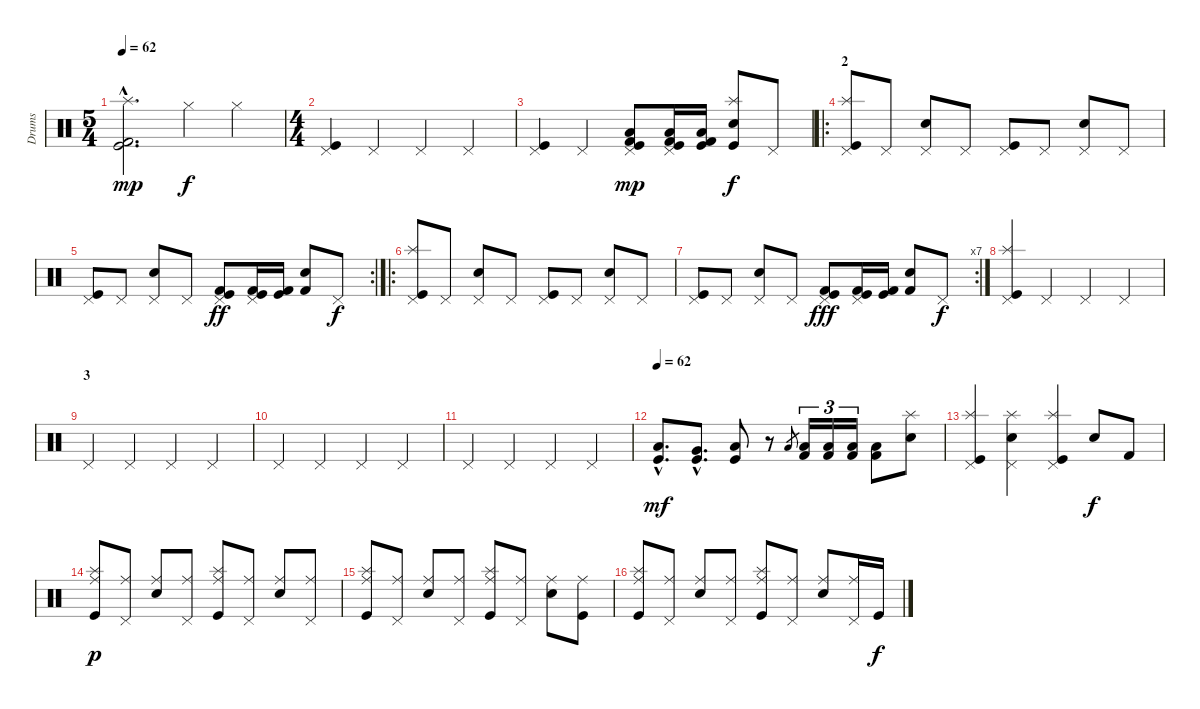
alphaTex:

\track ("Drums" "Drums") {instrument percussion}
\staff {score}
\articulation defaults
\ts (5 4)
\tempo 62
\clef neutral
\ks c
("Kick (hit)"{hac} "Kick (hit) 2"{hac} "Splash (hit)"{hac}).2{d dy mp} "Hi-Hat (closed)".4{dy f} "Hi-Hat (closed)".4 |
\ts (4 4)
("Kick (hit)" "Pedal Hi-Hat (hit)").4 "Pedal Hi-Hat (hit)".4 "Pedal Hi-Hat (hit)".4 "Pedal Hi-Hat (hit)".4 |
("Kick (hit)" "Pedal Hi-Hat (hit)").4 "Pedal Hi-Hat (hit)".4 ("Low Floor Tom (hit)" "Kick (hit)" "Pedal Hi-Hat (hit)" "Kick (hit) 2").8{dy mp} ("Low Floor Tom (hit)" "Kick (hit)" "Pedal Hi-Hat (hit)" "Kick (hit) 2").16 ("Low Floor Tom (hit)" "Kick (hit)" "Kick (hit) 2").16 ("Electric Snare (hit)" "Kick (hit)" "Splash (hit)").8{dy f} "Pedal Hi-Hat (hit)".8 |
\ro
\section ("" "2")
("Kick (hit)" "Pedal Hi-Hat (hit)" "Splash (hit)").8 "Pedal Hi-Hat (hit)".8 ("Electric Snare (hit)" "Pedal Hi-Hat (hit)").8 "Pedal Hi-Hat (hit)".8 ("Kick (hit)" "Pedal Hi-Hat (hit)").8 "Pedal Hi-Hat (hit)".8 ("Electric Snare (hit)" "Pedal Hi-Hat (hit)").8 "Pedal Hi-Hat (hit)".8 |
\rc 2
("Kick (hit)" "Pedal Hi-Hat (hit)").8 "Pedal Hi-Hat (hit)".8 ("Electric Snare (hit)" "Pedal Hi-Hat (hit)").8 "Pedal Hi-Hat (hit)".8 ("Kick (hit)" "Kick (hit) 2" "Pedal Hi-Hat (hit)").8{dy ff} ("Kick (hit)" "Kick (hit) 2" "Pedal Hi-Hat (hit)").16 ("Kick (hit)" "Kick (hit) 2").16 ("Electric Snare (hit)" "Kick (hit) 2").8 "Pedal Hi-Hat (hit)".8{dy f} |
\ro
("Kick (hit)" "Pedal Hi-Hat (hit)" "Splash (hit)").8 "Pedal Hi-Hat (hit)".8 ("Electric Snare (hit)" "Pedal Hi-Hat (hit)").8 "Pedal Hi-Hat (hit)".8 ("Kick (hit)" "Pedal Hi-Hat (hit)").8 "Pedal Hi-Hat (hit)".8 ("Electric Snare (hit)" "Pedal Hi-Hat (hit)").8 "Pedal Hi-Hat (hit)".8 |
\rc 7
("Kick (hit)" "Pedal Hi-Hat (hit)").8 "Pedal Hi-Hat (hit)".8 ("Electric Snare (hit)" "Pedal Hi-Hat (hit)").8 "Pedal Hi-Hat (hit)".8 ("Kick (hit)" "Kick (hit) 2" "Pedal Hi-Hat (hit)").8{dy fff} ("Kick (hit)" "Kick (hit) 2" "Pedal Hi-Hat (hit)").16 ("Kick (hit)" "Kick (hit) 2").16 ("Electric Snare (hit)" "Kick (hit) 2").8 "Pedal Hi-Hat (hit)".8{dy f} |
("Kick (hit)" "Pedal Hi-Hat (hit)" "Splash (hit)").4 "Pedal Hi-Hat (hit)".4 "Pedal Hi-Hat (hit)".4 "Pedal Hi-Hat (hit)".4 |
\section ("" "3")
"Pedal Hi-Hat (hit)".4 "Pedal Hi-Hat (hit)".4 "Pedal Hi-Hat (hit)".4 "Pedal Hi-Hat (hit)".4 |
"Pedal Hi-Hat (hit)".4 "Pedal Hi-Hat (hit)".4 "Pedal Hi-Hat (hit)".4 "Pedal Hi-Hat (hit)".4 |
"Pedal Hi-Hat (hit)".4 "Pedal Hi-Hat (hit)".4 "Pedal Hi-Hat (hit)".4 "Pedal Hi-Hat (hit)".4 |
\tempo 62
("Low Tom (hit)"{hac} "Kick (hit)"{hac}).8{d dy mf} ("Very Low Tom (hit)"{hac} "Kick (hit)"{hac}).8{d} ("Low Floor Tom (hit)" "Kick (hit)").8 r.8 "Low Floor Tom (hit)".8{gr} ("Low Floor Tom (hit)" "Kick (hit) 2").16{tu (3 2)} ("Low Floor Tom (hit)" "Kick (hit) 2").16{tu (3 2)} ("Low Floor Tom (hit)" "Kick (hit) 2").16{tu (3 2)} ("Low Floor Tom (hit)" "Kick (hit) 2").8 ("Electric Snare (hit)" "Splash (hit)").8 |
("Pedal Hi-Hat (hit)" "Kick (hit)" "Splash (hit)").4 ("Pedal Hi-Hat (hit)" "Electric Snare (hit)" "Splash (hit)").4 ("Kick (hit)" "Pedal Hi-Hat (hit)" "Splash (hit)").4 "Electric Snare (hit)".8{dy f} "Kick (hit) 2".8 |
("Kick (hit)" "Splash (hit)" "Ride (middle)").8{dy p} ("Pedal Hi-Hat (hit)" "Ride (middle)").8 ("Electric Snare (hit)" "Ride (middle)").8 ("Pedal Hi-Hat (hit)" "Ride (middle)").8 ("Kick (hit)" "Splash (hit)" "Ride (middle)").8 ("Pedal Hi-Hat (hit)" "Ride (middle)").8 ("Electric Snare (hit)" "Ride (middle)").8 ("Pedal Hi-Hat (hit)" "Ride (middle)").8 |
("Kick (hit)" "Splash (hit)" "Ride (middle)").8 ("Pedal Hi-Hat (hit)" "Ride (middle)").8 ("Electric Snare (hit)" "Ride (middle)").8 ("Pedal Hi-Hat (hit)" "Ride (middle)").8 ("Kick (hit)" "Splash (hit)" "Ride (middle)").8 ("Pedal Hi-Hat (hit)" "Ride (middle)").8 ("Electric Snare (hit)" "Ride (middle)").8 ("Kick (hit)" "Ride (middle)").8 |
("Kick (hit)" "Splash (hit)" "Ride (middle)").8 ("Pedal Hi-Hat (hit)" "Ride (middle)").8 ("Electric Snare (hit)" "Ride (middle)").8 ("Pedal Hi-Hat (hit)" "Ride (middle)").8 ("Kick (hit)" "Splash (hit)" "Ride (middle)").8 ("Pedal Hi-Hat (hit)" "Ride (middle)").8 ("Electric Snare (hit)" "Ride (middle)").8 ("Pedal Hi-Hat (hit)" "Ride (middle)").16 "Kick (hit)".16{dy f}
